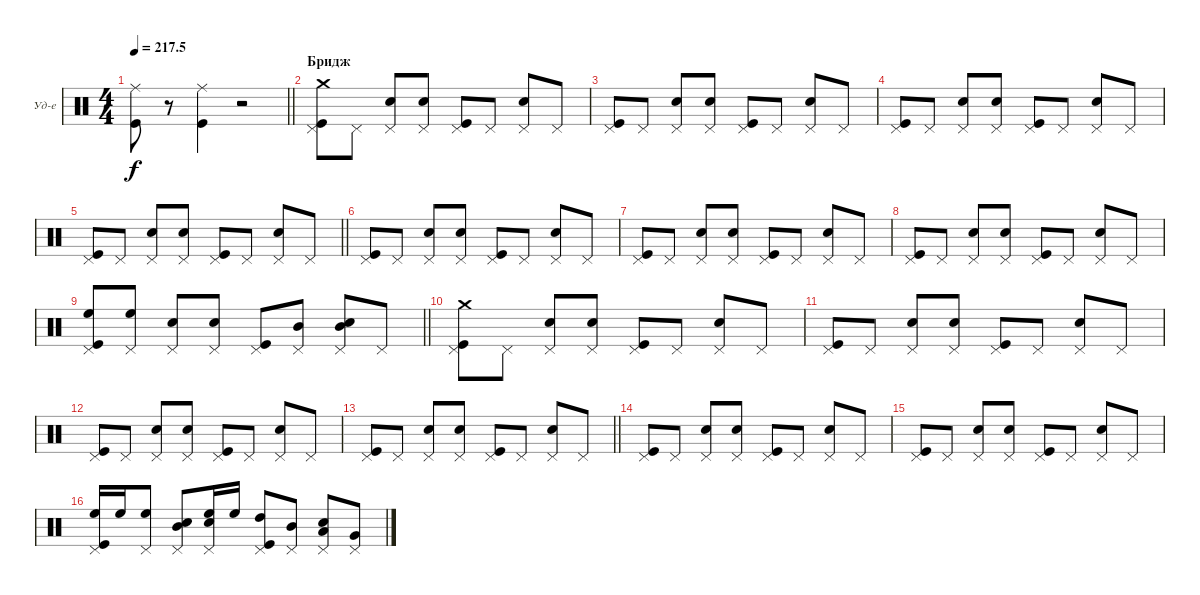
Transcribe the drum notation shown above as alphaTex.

\bracketExtendMode groupsimilarinstruments
\firstSystemTrackNameOrientation horizontal
\otherSystemsTrackNameOrientation horizontal
\track ("Ударные" "Уд-е") {instrument percussion}
\staff {score}
\articulation defaults
\ts (4 4)
\tempo
217.5
\accidentals auto
\clef neutral
\ottava regular
\simile none
\barLineRight lightlight
\ks c
("Kick (hit)" "Ride (middle)").8{dy f} r.8 ("Kick (hit)" "Ride (middle)").4 r.2 |
\section ("" "Бридж")
("Pedal Hi-Hat (hit)" "Kick (hit)" "Crash medium (hit)").8 "Pedal Hi-Hat (hit)".8 ("Pedal Hi-Hat (hit)" "Snare (hit) 2").8 ("Pedal Hi-Hat (hit)" "Snare (hit) 2").8 ("Pedal Hi-Hat (hit)" "Kick (hit)").8 "Pedal Hi-Hat (hit)".8 ("Pedal Hi-Hat (hit)" "Snare (hit) 2").8 "Pedal Hi-Hat (hit)".8 |
("Pedal Hi-Hat (hit)" "Kick (hit)").8 "Pedal Hi-Hat (hit)".8 ("Pedal Hi-Hat (hit)" "Snare (hit) 2").8 ("Pedal Hi-Hat (hit)" "Snare (hit) 2").8 ("Pedal Hi-Hat (hit)" "Kick (hit)").8 "Pedal Hi-Hat (hit)".8 ("Pedal Hi-Hat (hit)" "Snare (hit) 2").8 "Pedal Hi-Hat (hit)".8 |
("Pedal Hi-Hat (hit)" "Kick (hit)").8 "Pedal Hi-Hat (hit)".8 ("Pedal Hi-Hat (hit)" "Snare (hit) 2").8 ("Pedal Hi-Hat (hit)" "Snare (hit) 2").8 ("Pedal Hi-Hat (hit)" "Kick (hit)").8 "Pedal Hi-Hat (hit)".8 ("Pedal Hi-Hat (hit)" "Snare (hit) 2").8 "Pedal Hi-Hat (hit)".8 |
\barLineRight lightlight
("Pedal Hi-Hat (hit)" "Kick (hit)").8 "Pedal Hi-Hat (hit)".8 ("Pedal Hi-Hat (hit)" "Snare (hit) 2").8 ("Pedal Hi-Hat (hit)" "Snare (hit) 2").8 ("Pedal Hi-Hat (hit)" "Kick (hit)").8 "Pedal Hi-Hat (hit)".8 ("Pedal Hi-Hat (hit)" "Snare (hit) 2").8 "Pedal Hi-Hat (hit)".8 |
("Pedal Hi-Hat (hit)" "Kick (hit)").8 "Pedal Hi-Hat (hit)".8 ("Pedal Hi-Hat (hit)" "Snare (hit) 2").8 ("Pedal Hi-Hat (hit)" "Snare (hit) 2").8 ("Pedal Hi-Hat (hit)" "Kick (hit)").8 "Pedal Hi-Hat (hit)".8 ("Pedal Hi-Hat (hit)" "Snare (hit) 2").8 "Pedal Hi-Hat (hit)".8 |
("Pedal Hi-Hat (hit)" "Kick (hit)").8 "Pedal Hi-Hat (hit)".8 ("Pedal Hi-Hat (hit)" "Snare (hit) 2").8 ("Pedal Hi-Hat (hit)" "Snare (hit) 2").8 ("Pedal Hi-Hat (hit)" "Kick (hit)").8 "Pedal Hi-Hat (hit)".8 ("Pedal Hi-Hat (hit)" "Snare (hit) 2").8 "Pedal Hi-Hat (hit)".8 |
("Pedal Hi-Hat (hit)" "Kick (hit)").8 "Pedal Hi-Hat (hit)".8 ("Pedal Hi-Hat (hit)" "Snare (hit) 2").8 ("Pedal Hi-Hat (hit)" "Snare (hit) 2").8 ("Pedal Hi-Hat (hit)" "Kick (hit)").8 "Pedal Hi-Hat (hit)".8 ("Pedal Hi-Hat (hit)" "Snare (hit) 2").8 "Pedal Hi-Hat (hit)".8 |
\barLineRight lightlight
("Pedal Hi-Hat (hit)" "Kick (hit)" "High Floor Tom (hit)").8 ("Pedal Hi-Hat (hit)" "High Floor Tom (hit)").8 ("Pedal Hi-Hat (hit)" "Snare (hit) 2").8 ("Pedal Hi-Hat (hit)" "Snare (hit) 2").8 ("Pedal Hi-Hat (hit)" "Kick (hit)").8 ("Pedal Hi-Hat (hit)" "Mid Tom (hit)").8 ("Pedal Hi-Hat (hit)" "Snare (hit) 2" "Mid Tom (hit)").8 "Pedal Hi-Hat (hit)".8 |
("Pedal Hi-Hat (hit)" "Kick (hit)" "Crash medium (hit)").8 "Pedal Hi-Hat (hit)".8 ("Pedal Hi-Hat (hit)" "Snare (hit) 2").8 ("Pedal Hi-Hat (hit)" "Snare (hit) 2").8 ("Pedal Hi-Hat (hit)" "Kick (hit)").8 "Pedal Hi-Hat (hit)".8 ("Pedal Hi-Hat (hit)" "Snare (hit) 2").8 "Pedal Hi-Hat (hit)".8 |
("Pedal Hi-Hat (hit)" "Kick (hit)").8 "Pedal Hi-Hat (hit)".8 ("Pedal Hi-Hat (hit)" "Snare (hit) 2").8 ("Pedal Hi-Hat (hit)" "Snare (hit) 2").8 ("Pedal Hi-Hat (hit)" "Kick (hit)").8 "Pedal Hi-Hat (hit)".8 ("Pedal Hi-Hat (hit)" "Snare (hit) 2").8 "Pedal Hi-Hat (hit)".8 |
("Pedal Hi-Hat (hit)" "Kick (hit)").8 "Pedal Hi-Hat (hit)".8 ("Pedal Hi-Hat (hit)" "Snare (hit) 2").8 ("Pedal Hi-Hat (hit)" "Snare (hit) 2").8 ("Pedal Hi-Hat (hit)" "Kick (hit)").8 "Pedal Hi-Hat (hit)".8 ("Pedal Hi-Hat (hit)" "Snare (hit) 2").8 "Pedal Hi-Hat (hit)".8 |
\barLineRight lightlight
("Pedal Hi-Hat (hit)" "Kick (hit)").8 "Pedal Hi-Hat (hit)".8 ("Pedal Hi-Hat (hit)" "Snare (hit) 2").8 ("Pedal Hi-Hat (hit)" "Snare (hit) 2").8 ("Pedal Hi-Hat (hit)" "Kick (hit)").8 "Pedal Hi-Hat (hit)".8 ("Pedal Hi-Hat (hit)" "Snare (hit) 2").8 "Pedal Hi-Hat (hit)".8 |
("Pedal Hi-Hat (hit)" "Kick (hit)").8 "Pedal Hi-Hat (hit)".8 ("Pedal Hi-Hat (hit)" "Snare (hit) 2").8 ("Pedal Hi-Hat (hit)" "Snare (hit) 2").8 ("Pedal Hi-Hat (hit)" "Kick (hit)").8 "Pedal Hi-Hat (hit)".8 ("Pedal Hi-Hat (hit)" "Snare (hit) 2").8 "Pedal Hi-Hat (hit)".8 |
("Pedal Hi-Hat (hit)" "Kick (hit)").8 "Pedal Hi-Hat (hit)".8 ("Pedal Hi-Hat (hit)" "Snare (hit) 2").8 ("Pedal Hi-Hat (hit)" "Snare (hit) 2").8 ("Pedal Hi-Hat (hit)" "Kick (hit)").8 "Pedal Hi-Hat (hit)".8 ("Pedal Hi-Hat (hit)" "Snare (hit) 2").8 "Pedal Hi-Hat (hit)".8 |
("Pedal Hi-Hat (hit)" "Kick (hit)" "High Floor Tom (hit)").16 "High Floor Tom (hit)".16 ("Pedal Hi-Hat (hit)" "High Floor Tom (hit)").8 ("Pedal Hi-Hat (hit)" "Snare (hit) 2" "Mid Tom (hit)").8 ("Pedal Hi-Hat (hit)" "Snare (hit) 2" "High Floor Tom (hit)").16 "High Floor Tom (hit)".16 ("Pedal Hi-Hat (hit)" "Kick (hit)" "High Tom (hit)").8 ("Pedal Hi-Hat (hit)" "Mid Tom (hit)").8 ("Pedal Hi-Hat (hit)" "Snare (hit) 2" "Low Tom (hit)").8 ("Pedal Hi-Hat (hit)" "Very Low Tom (hit)").8
